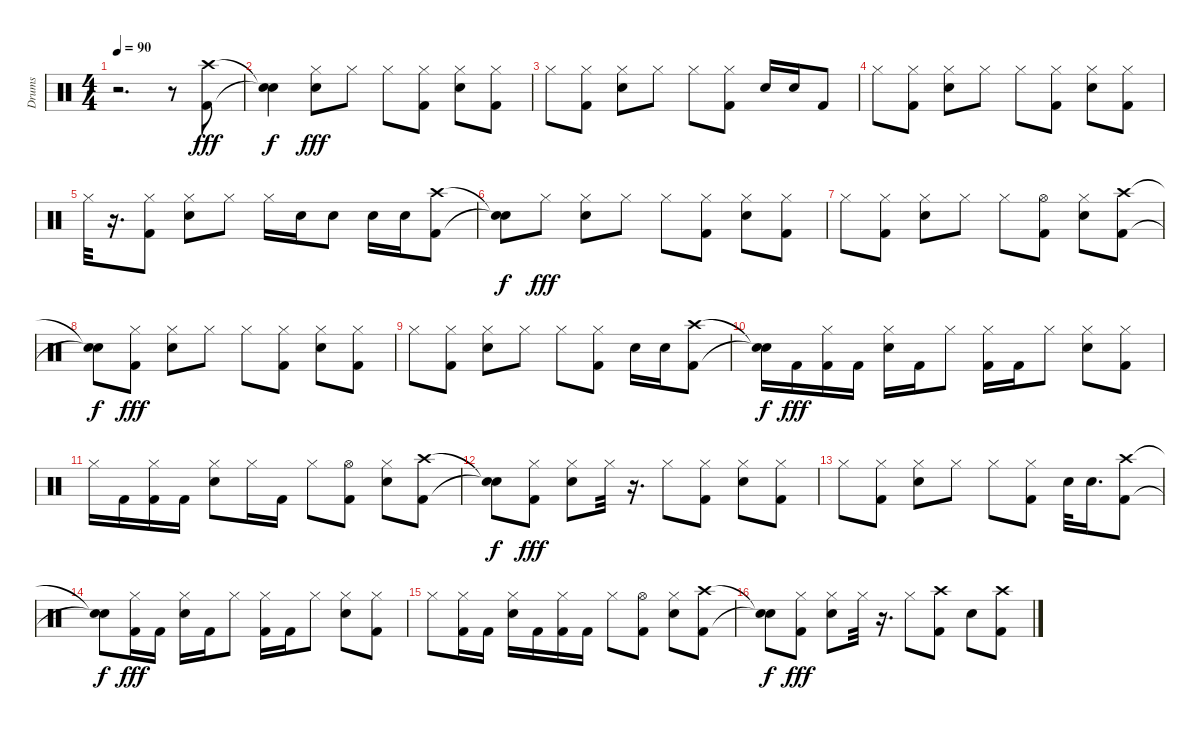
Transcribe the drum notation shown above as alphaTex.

\track ("Drums" "Drums") {instrument percussion}
\staff {score}
\articulation defaults
\ts (4 4)
\tempo 90
\clef neutral
\ks c
r.2{d dy fff} r.8 ("Kick (hit) 2" "Crash high (hit)").8 |
("Snare (hit)"{t} "Snare (hit)"{t}).4{dy f} ("Hi-Hat (closed)" "Electric Snare (hit)").8{dy fff} "Hi-Hat (closed)".8 "Hi-Hat (closed)".8 ("Kick (hit) 2" "Hi-Hat (closed)").8 ("Snare (hit) 2" "Hi-Hat (closed)").8 ("Hi-Hat (closed)" "Kick (hit) 2").8 |
"Hi-Hat (closed)".8 ("Kick (hit) 2" "Hi-Hat (closed)").8 ("Hi-Hat (closed)" "Snare (hit) 2").8 "Hi-Hat (closed)".8 "Hi-Hat (closed)".8 ("Kick (hit) 2" "Hi-Hat (closed)").8 "Snare (hit) 2".16 "Snare (hit) 2".16 "Kick (hit) 2".8 |
"Hi-Hat (closed)".8 ("Kick (hit) 2" "Hi-Hat (closed)").8 ("Hi-Hat (closed)" "Snare (hit) 2").8 "Hi-Hat (closed)".8 "Hi-Hat (closed)".8 ("Kick (hit) 2" "Hi-Hat (closed)").8 ("Electric Snare (hit)" "Hi-Hat (closed)").8 ("Kick (hit) 2" "Hi-Hat (closed)").8 |
"Hi-Hat (closed)".32 r.16{d} ("Hi-Hat (closed)" "Kick (hit) 2").8 ("Hi-Hat (closed)" "Electric Snare (hit)").8 "Hi-Hat (closed)".8 "Hi-Hat (closed)".16 "Electric Snare (hit)".16 "Snare (hit) 2".8 "Electric Snare (hit)".16 "Snare (hit) 2".16 ("Kick (hit) 2" "Crash high (hit)").8 |
("Snare (hit)"{t} "Snare (hit)"{t}).8{dy f} "Hi-Hat (closed)".8{dy fff} ("Hi-Hat (closed)" "Snare (hit) 2").8 "Hi-Hat (closed)".8 "Hi-Hat (closed)".8 ("Kick (hit) 2" "Hi-Hat (closed)").8 ("Hi-Hat (closed)" "Snare (hit) 2").8 ("Hi-Hat (closed)" "Kick (hit) 2").8 |
"Hi-Hat (closed)".8 ("Hi-Hat (closed)" "Kick (hit) 2").8 ("Snare (hit) 2" "Hi-Hat (closed)").8 "Hi-Hat (closed)".8 "Hi-Hat (closed)".8 ("Hi-Hat (open)" "Kick (hit) 2").8 ("Hi-Hat (closed)" "Snare (hit) 2").8 ("Crash high (hit)" "Kick (hit) 2").8 |
("Snare (hit)"{t} "Snare (hit)"{t}).8{dy f} ("Kick (hit) 2" "Hi-Hat (closed)").8{dy fff} ("Hi-Hat (closed)" "Snare (hit) 2").8 "Hi-Hat (closed)".8 "Hi-Hat (closed)".8 ("Hi-Hat (closed)" "Kick (hit) 2").8 ("Hi-Hat (closed)" "Snare (hit) 2").8 ("Hi-Hat (closed)" "Kick (hit) 2").8 |
"Hi-Hat (closed)".8 ("Hi-Hat (closed)" "Kick (hit) 2").8 ("Hi-Hat (closed)" "Snare (hit) 2").8 "Hi-Hat (closed)".8 "Hi-Hat (closed)".8 ("Kick (hit) 2" "Hi-Hat (closed)").8 "Snare (hit) 2".16 "Snare (hit) 2".16 ("Kick (hit) 2" "Crash high (hit)").8 |
("Snare (hit)"{t} "Snare (hit)"{t}).16{dy f} "Kick (hit) 2".16{dy fff} ("Hi-Hat (closed)" "Kick (hit) 2").16 "Kick (hit) 2".16 ("Hi-Hat (closed)" "Snare (hit) 2").16 "Kick (hit) 2".16 "Hi-Hat (closed)".8 ("Kick (hit) 2" "Hi-Hat (closed)").16 "Kick (hit) 2".16 "Hi-Hat (closed)".8 ("Hi-Hat (closed)" "Electric Snare (hit)").8 ("Kick (hit) 2" "Hi-Hat (closed)").8 |
"Hi-Hat (closed)".16 "Kick (hit) 2".16 ("Hi-Hat (closed)" "Kick (hit) 2").16 "Kick (hit) 2".16 ("Snare (hit) 2" "Hi-Hat (closed)").8 "Hi-Hat (closed)".16 "Kick (hit) 2".16 "Hi-Hat (closed)".8 ("Kick (hit) 2" "Hi-Hat (open)").8 ("Snare (hit) 2" "Hi-Hat (closed)").8 ("Crash high (hit)" "Kick (hit) 2").8 |
("Snare (hit)"{t} "Snare (hit)"{t}).8{dy f} ("Hi-Hat (closed)" "Kick (hit) 2").8{dy fff} ("Snare (hit) 2" "Hi-Hat (closed)").8 "Hi-Hat (closed)".32 r.16{d} "Hi-Hat (closed)".8 ("Kick (hit) 2" "Hi-Hat (closed)").8 ("Electric Snare (hit)" "Hi-Hat (closed)").8 ("Hi-Hat (closed)" "Kick (hit) 2").8 |
"Hi-Hat (closed)".8 ("Hi-Hat (closed)" "Kick (hit) 2").8 ("Hi-Hat (closed)" "Snare (hit) 2").8 "Hi-Hat (closed)".8 "Hi-Hat (closed)".8 ("Hi-Hat (closed)" "Kick (hit) 2").8 "Snare (hit) 2".32 "Electric Snare (hit)".16{d} ("Crash high (hit)" "Kick (hit) 2").8 |
("Snare (hit)"{t} "Snare (hit)"{t}).8{dy f} ("Hi-Hat (closed)" "Kick (hit) 2").16{dy fff} "Kick (hit) 2".16 ("Hi-Hat (closed)" "Electric Snare (hit)").16 "Kick (hit) 2".16 "Hi-Hat (closed)".8 ("Kick (hit) 2" "Hi-Hat (closed)").16 "Kick (hit) 2".16 "Hi-Hat (closed)".8 ("Hi-Hat (closed)" "Electric Snare (hit)").8 ("Kick (hit) 2" "Hi-Hat (closed)").8 |
"Hi-Hat (closed)".8 ("Hi-Hat (closed)" "Kick (hit) 2").16 "Kick (hit) 2".16 ("Snare (hit) 2" "Hi-Hat (closed)").16 "Kick (hit) 2".16 ("Kick (hit) 2" "Hi-Hat (closed)").16 "Kick (hit) 2".16 "Hi-Hat (closed)".8 ("Kick (hit) 2" "Hi-Hat (open)").8 ("Snare (hit) 2" "Hi-Hat (closed)").8 ("Kick (hit) 2" "Crash high (hit)").8 |
("Snare (hit)"{t} "Snare (hit)"{t}).8{dy f} ("Hi-Hat (closed)" "Kick (hit) 2").8{dy fff} ("Snare (hit) 2" "Hi-Hat (closed)").8 "Hi-Hat (closed)".32 r.16{d} "Hi-Hat (closed)".8 ("Kick (hit) 2" "Crash high (hit)").8 "Electric Snare (hit)".8 ("Crash high (hit)" "Kick (hit) 2").8
